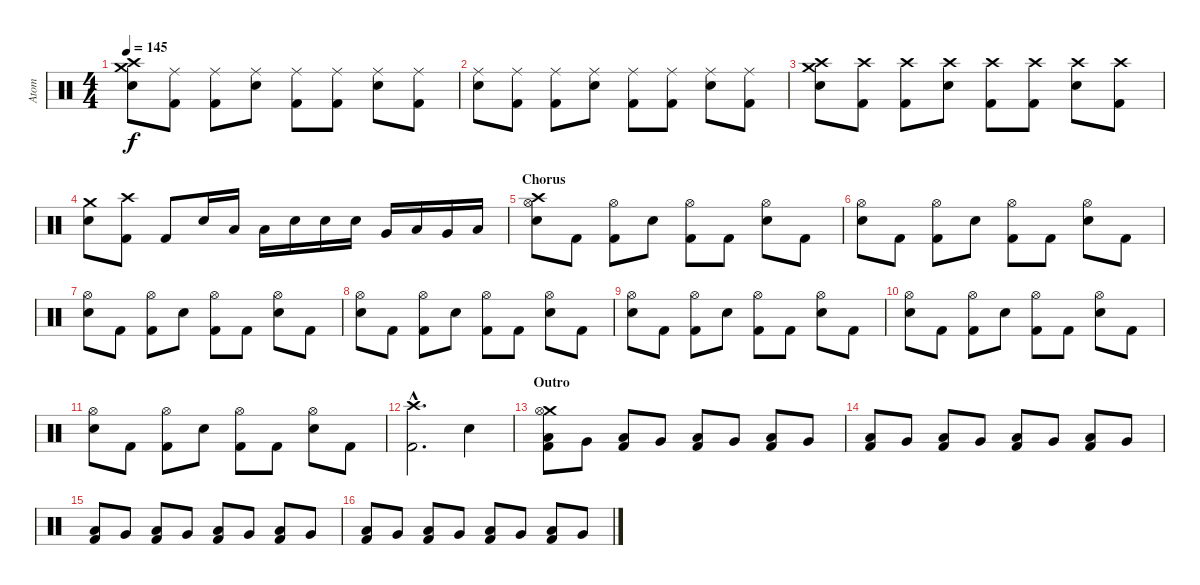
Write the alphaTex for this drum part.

\track ("Atom" "Atom") {instrument percussion}
\staff {score}
\articulation defaults
\ts (4 4)
\tempo 145
\clef neutral
\ks c
("Electric Snare (hit)" "Crash high (hit)" "Crash medium (hit)").8{dy f} ("Kick (hit) 2" "Ride (middle)").8 ("Kick (hit) 2" "Ride (middle)").8 ("Electric Snare (hit)" "Ride (middle)").8 ("Kick (hit) 2" "Ride (middle)").8 ("Kick (hit) 2" "Ride (middle)").8 ("Electric Snare (hit)" "Ride (middle)").8 ("Kick (hit) 2" "Ride (middle)").8 |
("Electric Snare (hit)" "Ride (middle)").8 ("Kick (hit) 2" "Ride (middle)").8 ("Kick (hit) 2" "Ride (middle)").8 ("Electric Snare (hit)" "Ride (middle)").8 ("Kick (hit) 2" "Ride (middle)").8 ("Kick (hit) 2" "Ride (middle)").8 ("Electric Snare (hit)" "Ride (middle)").8 ("Kick (hit) 2" "Ride (middle)").8 |
("Electric Snare (hit)" "Crash high (hit)" "Crash medium (hit)").8 ("Kick (hit) 2" "Crash high (hit)").8 ("Kick (hit) 2" "Crash high (hit)").8 ("Electric Snare (hit)" "Crash high (hit)").8 ("Kick (hit) 2" "Crash high (hit)").8 ("Kick (hit) 2" "Crash high (hit)").8 ("Electric Snare (hit)" "Crash high (hit)").8 ("Kick (hit) 2" "Crash high (hit)").8 |
("Electric Snare (hit)" "Crash medium (hit)").8 ("Kick (hit) 2" "Crash high (hit)").8 "Kick (hit) 2".8 "Electric Snare (hit)".16 "Low Tom (hit)".16 "Low Tom (hit)".16 "Electric Snare (hit)".16 "Electric Snare (hit)".16 "Electric Snare (hit)".16 "Very Low Tom (hit)".16 "Low Tom (hit)".16 "Very Low Tom (hit)".16 "Low Floor Tom (hit)".16 |
\section ("" "Chorus")
("Electric Snare (hit)" "Hi-Hat (open)" "Crash high (hit)").8{volume 16} "Kick (hit) 2".8 ("Kick (hit) 2" "Hi-Hat (open)").8 "Electric Snare (hit)".8 ("Kick (hit) 2" "Hi-Hat (open)").8 "Kick (hit) 2".8 ("Electric Snare (hit)" "Hi-Hat (open)").8 "Kick (hit) 2".8 |
("Electric Snare (hit)" "Hi-Hat (open)").8{volume 16} "Kick (hit) 2".8 ("Kick (hit) 2" "Hi-Hat (open)").8 "Electric Snare (hit)".8 ("Kick (hit) 2" "Hi-Hat (open)").8 "Kick (hit) 2".8 ("Electric Snare (hit)" "Hi-Hat (open)").8 "Kick (hit) 2".8 |
("Electric Snare (hit)" "Hi-Hat (open)").8{volume 16} "Kick (hit) 2".8 ("Kick (hit) 2" "Hi-Hat (open)").8 "Electric Snare (hit)".8 ("Kick (hit) 2" "Hi-Hat (open)").8 "Kick (hit) 2".8 ("Electric Snare (hit)" "Hi-Hat (open)").8 "Kick (hit) 2".8 |
("Electric Snare (hit)" "Hi-Hat (open)").8{volume 16} "Kick (hit) 2".8 ("Kick (hit) 2" "Hi-Hat (open)").8 "Electric Snare (hit)".8 ("Kick (hit) 2" "Hi-Hat (open)").8 "Kick (hit) 2".8 ("Electric Snare (hit)" "Hi-Hat (open)").8 "Kick (hit) 2".8 |
("Electric Snare (hit)" "Hi-Hat (open)").8{volume 16} "Kick (hit) 2".8 ("Kick (hit) 2" "Hi-Hat (open)").8 "Electric Snare (hit)".8 ("Kick (hit) 2" "Hi-Hat (open)").8 "Kick (hit) 2".8 ("Electric Snare (hit)" "Hi-Hat (open)").8 "Kick (hit) 2".8 |
("Electric Snare (hit)" "Hi-Hat (open)").8{volume 16} "Kick (hit) 2".8 ("Kick (hit) 2" "Hi-Hat (open)").8 "Electric Snare (hit)".8 ("Kick (hit) 2" "Hi-Hat (open)").8 "Kick (hit) 2".8 ("Electric Snare (hit)" "Hi-Hat (open)").8 "Kick (hit) 2".8 |
("Electric Snare (hit)" "Hi-Hat (open)").8{volume 16} "Kick (hit) 2".8 ("Kick (hit) 2" "Hi-Hat (open)").8 "Electric Snare (hit)".8 ("Kick (hit) 2" "Hi-Hat (open)").8 "Kick (hit) 2".8 ("Electric Snare (hit)" "Hi-Hat (open)").8 "Kick (hit) 2".8 |
("Kick (hit) 2"{hac} "Crash high (hit)"{hac}).2{d volume 16} "Electric Snare (hit)".4 |
\section ("" "Outro")
("Crash medium (hit)" "Hi-Hat (open)" "Kick (hit) 2" "Low Tom (hit)").8 "Very Low Tom (hit)".8 ("Kick (hit) 2" "Low Floor Tom (hit)").8 "Very Low Tom (hit)".8 ("Kick (hit) 2" "Low Tom (hit)").8 "Very Low Tom (hit)".8 ("Kick (hit) 2" "Low Floor Tom (hit)").8 "Very Low Tom (hit)".8 |
("Kick (hit) 2" "Low Tom (hit)").8 "Very Low Tom (hit)".8 ("Kick (hit) 2" "Low Floor Tom (hit)").8 "Very Low Tom (hit)".8 ("Kick (hit) 2" "Low Tom (hit)").8 "Very Low Tom (hit)".8 ("Kick (hit) 2" "Low Floor Tom (hit)").8 "Very Low Tom (hit)".8 |
("Kick (hit) 2" "Low Tom (hit)").8 "Very Low Tom (hit)".8 ("Kick (hit) 2" "Low Floor Tom (hit)").8 "Very Low Tom (hit)".8 ("Kick (hit) 2" "Low Tom (hit)").8 "Very Low Tom (hit)".8 ("Kick (hit) 2" "Low Floor Tom (hit)").8 "Very Low Tom (hit)".8 |
("Kick (hit) 2" "Low Tom (hit)").8 "Very Low Tom (hit)".8 ("Kick (hit) 2" "Low Floor Tom (hit)").8 "Very Low Tom (hit)".8 ("Kick (hit) 2" "Low Tom (hit)").8 "Very Low Tom (hit)".8 ("Kick (hit) 2" "Low Floor Tom (hit)").8 "Very Low Tom (hit)".8
